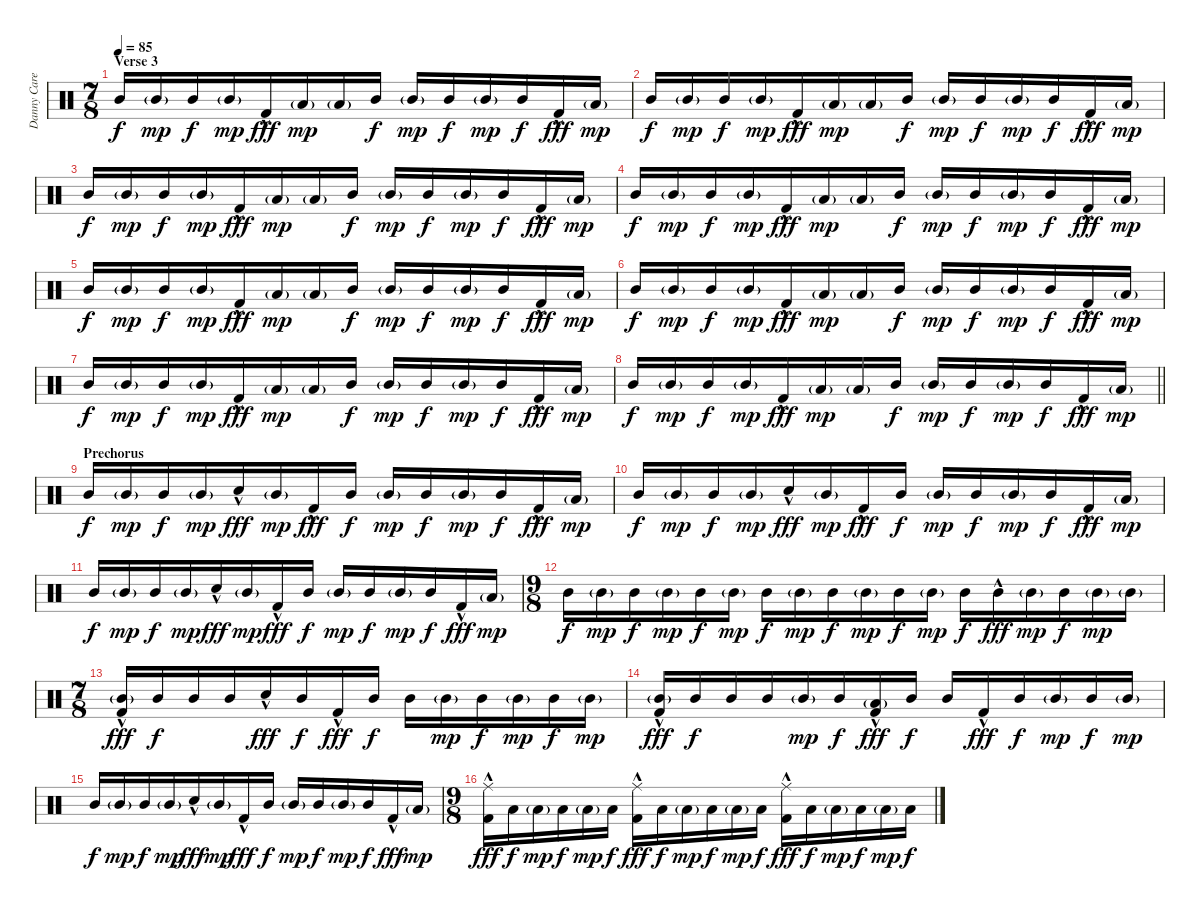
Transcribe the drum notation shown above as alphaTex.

\track ("Danny Carey" "Danny Care") {instrument percussion}
\staff {score}
\articulation defaults
\ts (7 8)
\section ("" "Verse 3")
\tempo 85
\clef neutral
\ks c "Mid Tom (hit)".16{dy f} "Mid Tom (hit)"{g}.16{dy mp} "Mid Tom (hit)".16{dy f} "Mid Tom (hit)"{g}.16{dy mp} "Kick (hit) 2"{hac}.16{dy fff} "Low Floor Tom (hit)"{g}.16{dy mp} "Low Floor Tom (hit)"{g}.16 "Mid Tom (hit)".16{dy f} "Mid Tom (hit)"{g}.16{dy mp} "Mid Tom (hit)".16{dy f} "Mid Tom (hit)"{g}.16{dy mp} "Mid Tom (hit)".16{dy f} "Kick (hit) 2"{hac}.16{dy fff} "Low Floor Tom (hit)"{g}.16{dy mp}
|
"Mid Tom (hit)".16{dy f} "Mid Tom (hit)"{g}.16{dy mp} "Mid Tom (hit)".16{dy f} "Mid Tom (hit)"{g}.16{dy mp} "Kick (hit) 2"{hac}.16{dy fff} "Low Floor Tom (hit)"{g}.16{dy mp} "Low Floor Tom (hit)"{g}.16 "Mid Tom (hit)".16{dy f} "Mid Tom (hit)"{g}.16{dy mp} "Mid Tom (hit)".16{dy f} "Mid Tom (hit)"{g}.16{dy mp} "Mid Tom (hit)".16{dy f} "Kick (hit) 2"{hac}.16{dy fff} "Low Floor Tom (hit)"{g}.16{dy mp} |
"Mid Tom (hit)".16{dy f} "Mid Tom (hit)"{g}.16{dy mp} "Mid Tom (hit)".16{dy f} "Mid Tom (hit)"{g}.16{dy mp} "Kick (hit) 2"{hac}.16{dy fff} "Low Floor Tom (hit)"{g}.16{dy mp} "Low Floor Tom (hit)"{g}.16 "Mid Tom (hit)".16{dy f} "Mid Tom (hit)"{g}.16{dy mp} "Mid Tom (hit)".16{dy f} "Mid Tom (hit)"{g}.16{dy mp} "Mid Tom (hit)".16{dy f} "Kick (hit) 2"{hac}.16{dy fff} "Low Floor Tom (hit)"{g}.16{dy mp} |
"Mid Tom (hit)".16{dy f} "Mid Tom (hit)"{g}.16{dy mp} "Mid Tom (hit)".16{dy f} "Mid Tom (hit)"{g}.16{dy mp} "Kick (hit) 2"{hac}.16{dy fff} "Low Floor Tom (hit)"{g}.16{dy mp} "Low Floor Tom (hit)"{g}.16 "Mid Tom (hit)".16{dy f} "Mid Tom (hit)"{g}.16{dy mp} "Mid Tom (hit)".16{dy f} "Mid Tom (hit)"{g}.16{dy mp} "Mid Tom (hit)".16{dy f} "Kick (hit) 2"{hac}.16{dy fff} "Low Floor Tom (hit)"{g}.16{dy mp} |
"Mid Tom (hit)".16{dy f} "Mid Tom (hit)"{g}.16{dy mp} "Mid Tom (hit)".16{dy f} "Mid Tom (hit)"{g}.16{dy mp} "Kick (hit) 2"{hac}.16{dy fff} "Low Floor Tom (hit)"{g}.16{dy mp} "Low Floor Tom (hit)"{g}.16 "Mid Tom (hit)".16{dy f} "Mid Tom (hit)"{g}.16{dy mp} "Mid Tom (hit)".16{dy f} "Mid Tom (hit)"{g}.16{dy mp} "Mid Tom (hit)".16{dy f} "Kick (hit) 2"{hac}.16{dy fff} "Low Floor Tom (hit)"{g}.16{dy mp} |
"Mid Tom (hit)".16{dy f} "Mid Tom (hit)"{g}.16{dy mp} "Mid Tom (hit)".16{dy f} "Mid Tom (hit)"{g}.16{dy mp} "Kick (hit) 2"{hac}.16{dy fff} "Low Floor Tom (hit)"{g}.16{dy mp} "Low Floor Tom (hit)"{g}.16 "Mid Tom (hit)".16{dy f} "Mid Tom (hit)"{g}.16{dy mp} "Mid Tom (hit)".16{dy f} "Mid Tom (hit)"{g}.16{dy mp} "Mid Tom (hit)".16{dy f} "Kick (hit) 2"{hac}.16{dy fff} "Low Floor Tom (hit)"{g}.16{dy mp} |
"Mid Tom (hit)".16{dy f} "Mid Tom (hit)"{g}.16{dy mp} "Mid Tom (hit)".16{dy f} "Mid Tom (hit)"{g}.16{dy mp} "Kick (hit) 2"{hac}.16{dy fff} "Low Floor Tom (hit)"{g}.16{dy mp} "Low Floor Tom (hit)"{g}.16 "Mid Tom (hit)".16{dy f} "Mid Tom (hit)"{g}.16{dy mp} "Mid Tom (hit)".16{dy f} "Mid Tom (hit)"{g}.16{dy mp} "Mid Tom (hit)".16{dy f} "Kick (hit) 2"{hac}.16{dy fff} "Low Floor Tom (hit)"{g}.16{dy mp} |
\barLineRight lightlight "Mid Tom (hit)".16{dy f} "Mid Tom (hit)"{g}.16{dy mp} "Mid Tom (hit)".16{dy f} "Mid Tom (hit)"{g}.16{dy mp} "Kick (hit) 2"{hac}.16{dy fff} "Low Floor Tom (hit)"{g}.16{dy mp} "Low Floor Tom (hit)"{g}.16 "Mid Tom (hit)".16{dy f} "Mid Tom (hit)"{g}.16{dy mp} "Mid Tom (hit)".16{dy f} "Mid Tom (hit)"{g}.16{dy mp} "Mid Tom (hit)".16{dy f} "Kick (hit) 2"{hac}.16{dy fff} "Low Floor Tom (hit)"{g}.16{dy mp}
|
\section ("" "Prechorus")
"Mid Tom (hit)".16{dy f} "Mid Tom (hit)"{g}.16{dy mp} "Mid Tom (hit)".16{dy f} "Mid Tom (hit)"{g}.16{dy mp} "Electric Snare (hit)"{hac}.16{dy fff} "Mid Tom (hit)"{g}.16{dy mp} "Kick (hit) 2"{hac}.16{dy fff} "Mid Tom (hit)".16{dy f} "Mid Tom (hit)"{g}.16{dy mp} "Mid Tom (hit)".16{dy f} "Mid Tom (hit)"{g}.16{dy mp} "Mid Tom (hit)".16{dy f} "Kick (hit) 2"{hac}.16{dy fff} "Low Floor Tom (hit)"{g}.16{dy mp} |
"Mid Tom (hit)".16{dy f} "Mid Tom (hit)"{g}.16{dy mp} "Mid Tom (hit)".16{dy f} "Mid Tom (hit)"{g}.16{dy mp} "Electric Snare (hit)"{hac}.16{dy fff} "Mid Tom (hit)"{g}.16{dy mp} "Kick (hit) 2"{hac}.16{dy fff} "Mid Tom (hit)".16{dy f} "Mid Tom (hit)"{g}.16{dy mp} "Mid Tom (hit)".16{dy f} "Mid Tom (hit)"{g}.16{dy mp} "Mid Tom (hit)".16{dy f} "Kick (hit) 2"{hac}.16{dy fff} "Low Floor Tom (hit)"{g}.16{dy mp} |
"Mid Tom (hit)".16{dy f} "Mid Tom (hit)"{g}.16{dy mp} "Mid Tom (hit)".16{dy f} "Mid Tom (hit)"{g}.16{dy mp} "Electric Snare (hit)"{hac}.16{dy fff} "Mid Tom (hit)"{g}.16{dy mp} "Kick (hit) 2"{hac}.16{dy fff} "Mid Tom (hit)".16{dy f} "Mid Tom (hit)"{g}.16{dy mp} "Mid Tom (hit)".16{dy f} "Mid Tom (hit)"{g}.16{dy mp} "Mid Tom (hit)".16{dy f} "Kick (hit) 2"{hac}.16{dy fff} "Low Floor Tom (hit)"{g}.16{dy mp} |
\ts (9 8)
"Mid Tom (hit)".16{dy f} "Mid Tom (hit)"{g}.16{dy mp} "Mid Tom (hit)".16{dy f} "Mid Tom (hit)"{g}.16{dy mp} "Mid Tom (hit)".16{dy f} "Mid Tom (hit)"{g}.16{dy mp} "Mid Tom (hit)".16{dy f} "Mid Tom (hit)"{g}.16{dy mp} "Mid Tom (hit)".16{dy f} "Mid Tom (hit)"{g}.16{dy mp} "Mid Tom (hit)".16{dy f} "Mid Tom (hit)"{g}.16{dy mp} "Mid Tom (hit)".16{dy f} "Mid Tom (hit)"{hac}.16{dy fff} "Mid Tom (hit)"{g}.16{dy mp} "Mid Tom (hit)".16{dy f} "Mid Tom (hit)"{g}.16{dy mp} "Mid Tom (hit)"{g}.16 |
\ts (7 8)
("Mid Tom (hit)"{g} "Kick (hit) 2"{hac}).16{dy fff} "Mid Tom (hit)".16{dy f} "Mid Tom (hit)".16 "Mid Tom (hit)".16 "Electric Snare (hit)"{hac}.16{dy fff} "Mid Tom (hit)".16{dy f} "Kick (hit) 2"{hac}.16{dy fff} "Mid Tom (hit)".16{dy f} "Mid Tom (hit)".16 "Mid Tom (hit)"{g}.16{dy mp} "Mid Tom (hit)".16{dy f} "Mid Tom (hit)"{g}.16{dy mp} "Mid Tom (hit)".16{dy f} "Mid Tom (hit)"{g}.16{dy mp} |
("Mid Tom (hit)"{g} "Kick (hit) 2"{hac}).16{dy fff} "Mid Tom (hit)".16{dy f} "Mid Tom (hit)".16 "Mid Tom (hit)".16 "Mid Tom (hit)"{g}.16{dy mp} "Mid Tom (hit)".16{dy f} ("Low Floor Tom (hit)"{g} "Kick (hit) 2"{hac}).16{dy fff} "Mid Tom (hit)".16{dy f} "Mid Tom (hit)".16 "Kick (hit) 2"{hac}.16{dy fff} "Mid Tom (hit)".16{dy f} "Mid Tom (hit)"{g}.16{dy mp} "Mid Tom (hit)".16{dy f} "Mid Tom (hit)"{g}.16{dy mp} |
"Mid Tom (hit)".16{dy f} "Mid Tom (hit)"{g}.16{dy mp} "Mid Tom (hit)".16{dy f} "Mid Tom (hit)"{g}.16{dy mp} "Electric Snare (hit)"{hac}.16{dy fff} "Mid Tom (hit)"{g}.16{dy mp} "Kick (hit) 2"{hac}.16{dy fff} "Mid Tom (hit)".16{dy f} "Mid Tom (hit)"{g}.16{dy mp} "Mid Tom (hit)".16{dy f} "Mid Tom (hit)"{g}.16{dy mp} "Mid Tom (hit)".16{dy f} "Kick (hit) 2"{hac}.16{dy fff} "Low Floor Tom (hit)"{g}.16{dy mp} |
\ts (9 8)
("Ride (middle)" "Kick (hit) 2"{hac}).16{dy fff} "Low Floor Tom (hit)".16{dy f} "Low Floor Tom (hit)"{g}.16{dy mp} "Low Floor Tom (hit)".16{dy f} "Low Floor Tom (hit)"{g}.16{dy mp} "Low Floor Tom (hit)".16{dy f} ("Ride (middle)" "Kick (hit) 2"{hac}).16{dy fff} "Low Floor Tom (hit)".16{dy f} "Low Floor Tom (hit)"{g}.16{dy mp} "Low Floor Tom (hit)".16{dy f} "Low Floor Tom (hit)"{g}.16{dy mp} "Low Floor Tom (hit)".16{dy f} ("Ride (middle)" "Kick (hit) 2"{hac}).16{dy fff} "Low Floor Tom (hit)".16{dy f} "Low Floor Tom (hit)"{g}.16{dy mp} "Low Floor Tom (hit)".16{dy f} "Low Floor Tom (hit)"{g}.16{dy mp} "Low Floor Tom (hit)".16{dy f}
